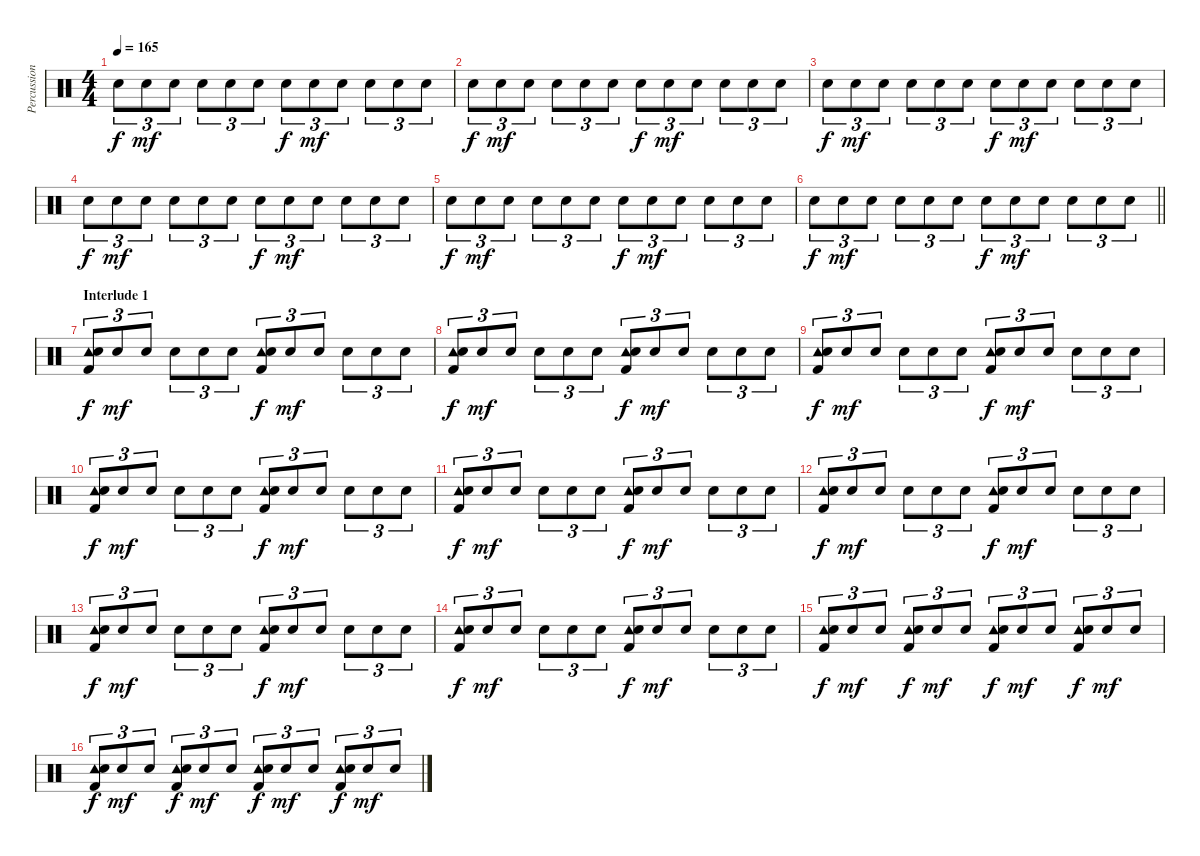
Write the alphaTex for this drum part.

\track ("Percussion" "Percussion") {instrument percussion}
\staff {score}
\articulation defaults
\ts (4 4)
\tempo 165
\clef neutral
\ks c "Electric Snare (hit)".8{tu (3 2) dy f} "Electric Snare (hit)".8{tu (3 2) dy mf} "Electric Snare (hit)".8{tu (3 2)} "Electric Snare (hit)".8{tu (3 2)} "Electric Snare (hit)".8{tu (3 2)} "Electric Snare (hit)".8{tu (3 2)} "Electric Snare (hit)".8{tu (3 2) dy f} "Electric Snare (hit)".8{tu (3 2) dy mf} "Electric Snare (hit)".8{tu (3 2)} "Electric Snare (hit)".8{tu (3 2)} "Electric Snare (hit)".8{tu (3 2)} "Electric Snare (hit)".8{tu (3 2)}
|
"Electric Snare (hit)".8{tu (3 2) dy f} "Electric Snare (hit)".8{tu (3 2) dy mf} "Electric Snare (hit)".8{tu (3 2)} "Electric Snare (hit)".8{tu (3 2)} "Electric Snare (hit)".8{tu (3 2)} "Electric Snare (hit)".8{tu (3 2)} "Electric Snare (hit)".8{tu (3 2) dy f} "Electric Snare (hit)".8{tu (3 2) dy mf} "Electric Snare (hit)".8{tu (3 2)} "Electric Snare (hit)".8{tu (3 2)} "Electric Snare (hit)".8{tu (3 2)} "Electric Snare (hit)".8{tu (3 2)} |
"Electric Snare (hit)".8{tu (3 2) dy f} "Electric Snare (hit)".8{tu (3 2) dy mf} "Electric Snare (hit)".8{tu (3 2)} "Electric Snare (hit)".8{tu (3 2)} "Electric Snare (hit)".8{tu (3 2)} "Electric Snare (hit)".8{tu (3 2)} "Electric Snare (hit)".8{tu (3 2) dy f} "Electric Snare (hit)".8{tu (3 2) dy mf} "Electric Snare (hit)".8{tu (3 2)} "Electric Snare (hit)".8{tu (3 2)} "Electric Snare (hit)".8{tu (3 2)} "Electric Snare (hit)".8{tu (3 2)} |
"Electric Snare (hit)".8{tu (3 2) dy f} "Electric Snare (hit)".8{tu (3 2) dy mf} "Electric Snare (hit)".8{tu (3 2)} "Electric Snare (hit)".8{tu (3 2)} "Electric Snare (hit)".8{tu (3 2)} "Electric Snare (hit)".8{tu (3 2)} "Electric Snare (hit)".8{tu (3 2) dy f} "Electric Snare (hit)".8{tu (3 2) dy mf} "Electric Snare (hit)".8{tu (3 2)} "Electric Snare (hit)".8{tu (3 2)} "Electric Snare (hit)".8{tu (3 2)} "Electric Snare (hit)".8{tu (3 2)} |
"Electric Snare (hit)".8{tu (3 2) dy f} "Electric Snare (hit)".8{tu (3 2) dy mf} "Electric Snare (hit)".8{tu (3 2)} "Electric Snare (hit)".8{tu (3 2)} "Electric Snare (hit)".8{tu (3 2)} "Electric Snare (hit)".8{tu (3 2)} "Electric Snare (hit)".8{tu (3 2) dy f} "Electric Snare (hit)".8{tu (3 2) dy mf} "Electric Snare (hit)".8{tu (3 2)} "Electric Snare (hit)".8{tu (3 2)} "Electric Snare (hit)".8{tu (3 2)} "Electric Snare (hit)".8{tu (3 2)} |
\barLineRight lightlight "Electric Snare (hit)".8{tu (3 2) dy f} "Electric Snare (hit)".8{tu (3 2) dy mf} "Electric Snare (hit)".8{tu (3 2)} "Electric Snare (hit)".8{tu (3 2)} "Electric Snare (hit)".8{tu (3 2)} "Electric Snare (hit)".8{tu (3 2)} "Electric Snare (hit)".8{tu (3 2) dy f} "Electric Snare (hit)".8{tu (3 2) dy mf} "Electric Snare (hit)".8{tu (3 2)} "Electric Snare (hit)".8{tu (3 2)} "Electric Snare (hit)".8{tu (3 2)} "Electric Snare (hit)".8{tu (3 2)}
|
\section ("" "Interlude 1")
("Tambourine (hit)" "Electric Snare (hit)" "Kick (hit) 2").8{tu (3 2) dy f} "Electric Snare (hit)".8{tu (3 2) dy mf} "Electric Snare (hit)".8{tu (3 2)} "Electric Snare (hit)".8{tu (3 2)} "Electric Snare (hit)".8{tu (3 2)} "Electric Snare (hit)".8{tu (3 2)} ("Tambourine (hit)" "Electric Snare (hit)" "Kick (hit) 2").8{tu (3 2) dy f} "Electric Snare (hit)".8{tu (3 2) dy mf} "Electric Snare (hit)".8{tu (3 2)} "Electric Snare (hit)".8{tu (3 2)} "Electric Snare (hit)".8{tu (3 2)} "Electric Snare (hit)".8{tu (3 2)} |
("Tambourine (hit)" "Electric Snare (hit)" "Kick (hit) 2").8{tu (3 2) dy f} "Electric Snare (hit)".8{tu (3 2) dy mf} "Electric Snare (hit)".8{tu (3 2)} "Electric Snare (hit)".8{tu (3 2)} "Electric Snare (hit)".8{tu (3 2)} "Electric Snare (hit)".8{tu (3 2)} ("Tambourine (hit)" "Electric Snare (hit)" "Kick (hit) 2").8{tu (3 2) dy f} "Electric Snare (hit)".8{tu (3 2) dy mf} "Electric Snare (hit)".8{tu (3 2)} "Electric Snare (hit)".8{tu (3 2)} "Electric Snare (hit)".8{tu (3 2)} "Electric Snare (hit)".8{tu (3 2)} |
("Tambourine (hit)" "Electric Snare (hit)" "Kick (hit) 2").8{tu (3 2) dy f} "Electric Snare (hit)".8{tu (3 2) dy mf} "Electric Snare (hit)".8{tu (3 2)} "Electric Snare (hit)".8{tu (3 2)} "Electric Snare (hit)".8{tu (3 2)} "Electric Snare (hit)".8{tu (3 2)} ("Tambourine (hit)" "Electric Snare (hit)" "Kick (hit) 2").8{tu (3 2) dy f} "Electric Snare (hit)".8{tu (3 2) dy mf} "Electric Snare (hit)".8{tu (3 2)} "Electric Snare (hit)".8{tu (3 2)} "Electric Snare (hit)".8{tu (3 2)} "Electric Snare (hit)".8{tu (3 2)} |
("Tambourine (hit)" "Electric Snare (hit)" "Kick (hit) 2").8{tu (3 2) dy f} "Electric Snare (hit)".8{tu (3 2) dy mf} "Electric Snare (hit)".8{tu (3 2)} "Electric Snare (hit)".8{tu (3 2)} "Electric Snare (hit)".8{tu (3 2)} "Electric Snare (hit)".8{tu (3 2)} ("Tambourine (hit)" "Electric Snare (hit)" "Kick (hit) 2").8{tu (3 2) dy f} "Electric Snare (hit)".8{tu (3 2) dy mf} "Electric Snare (hit)".8{tu (3 2)} "Electric Snare (hit)".8{tu (3 2)} "Electric Snare (hit)".8{tu (3 2)} "Electric Snare (hit)".8{tu (3 2)} |
("Tambourine (hit)" "Electric Snare (hit)" "Kick (hit) 2").8{tu (3 2) dy f} "Electric Snare (hit)".8{tu (3 2) dy mf} "Electric Snare (hit)".8{tu (3 2)} "Electric Snare (hit)".8{tu (3 2)} "Electric Snare (hit)".8{tu (3 2)} "Electric Snare (hit)".8{tu (3 2)} ("Tambourine (hit)" "Electric Snare (hit)" "Kick (hit) 2").8{tu (3 2) dy f} "Electric Snare (hit)".8{tu (3 2) dy mf} "Electric Snare (hit)".8{tu (3 2)} "Electric Snare (hit)".8{tu (3 2)} "Electric Snare (hit)".8{tu (3 2)} "Electric Snare (hit)".8{tu (3 2)} |
("Tambourine (hit)" "Electric Snare (hit)" "Kick (hit) 2").8{tu (3 2) dy f} "Electric Snare (hit)".8{tu (3 2) dy mf} "Electric Snare (hit)".8{tu (3 2)} "Electric Snare (hit)".8{tu (3 2)} "Electric Snare (hit)".8{tu (3 2)} "Electric Snare (hit)".8{tu (3 2)} ("Tambourine (hit)" "Electric Snare (hit)" "Kick (hit) 2").8{tu (3 2) dy f} "Electric Snare (hit)".8{tu (3 2) dy mf} "Electric Snare (hit)".8{tu (3 2)} "Electric Snare (hit)".8{tu (3 2)} "Electric Snare (hit)".8{tu (3 2)} "Electric Snare (hit)".8{tu (3 2)} |
("Tambourine (hit)" "Electric Snare (hit)" "Kick (hit) 2").8{tu (3 2) dy f} "Electric Snare (hit)".8{tu (3 2) dy mf} "Electric Snare (hit)".8{tu (3 2)} "Electric Snare (hit)".8{tu (3 2)} "Electric Snare (hit)".8{tu (3 2)} "Electric Snare (hit)".8{tu (3 2)} ("Tambourine (hit)" "Electric Snare (hit)" "Kick (hit) 2").8{tu (3 2) dy f} "Electric Snare (hit)".8{tu (3 2) dy mf} "Electric Snare (hit)".8{tu (3 2)} "Electric Snare (hit)".8{tu (3 2)} "Electric Snare (hit)".8{tu (3 2)} "Electric Snare (hit)".8{tu (3 2)} |
("Tambourine (hit)" "Electric Snare (hit)" "Kick (hit) 2").8{tu (3 2) dy f} "Electric Snare (hit)".8{tu (3 2) dy mf} "Electric Snare (hit)".8{tu (3 2)} "Electric Snare (hit)".8{tu (3 2)} "Electric Snare (hit)".8{tu (3 2)} "Electric Snare (hit)".8{tu (3 2)} ("Tambourine (hit)" "Electric Snare (hit)" "Kick (hit) 2").8{tu (3 2) dy f} "Electric Snare (hit)".8{tu (3 2) dy mf} "Electric Snare (hit)".8{tu (3 2)} "Electric Snare (hit)".8{tu (3 2)} "Electric Snare (hit)".8{tu (3 2)} "Electric Snare (hit)".8{tu (3 2)} |
("Tambourine (hit)" "Electric Snare (hit)" "Kick (hit) 2").8{tu (3 2) dy f} "Electric Snare (hit)".8{tu (3 2) dy mf} "Electric Snare (hit)".8{tu (3 2)} ("Tambourine (hit)" "Electric Snare (hit)" "Kick (hit) 2").8{tu (3 2) dy f} "Electric Snare (hit)".8{tu (3 2) dy mf} "Electric Snare (hit)".8{tu (3 2)} ("Tambourine (hit)" "Electric Snare (hit)" "Kick (hit) 2").8{tu (3 2) dy f} "Electric Snare (hit)".8{tu (3 2) dy mf} "Electric Snare (hit)".8{tu (3 2)} ("Tambourine (hit)" "Electric Snare (hit)" "Kick (hit) 2").8{tu (3 2) dy f} "Electric Snare (hit)".8{tu (3 2) dy mf} "Electric Snare (hit)".8{tu (3 2)} |
("Tambourine (hit)" "Electric Snare (hit)" "Kick (hit) 2").8{tu (3 2) dy f} "Electric Snare (hit)".8{tu (3 2) dy mf} "Electric Snare (hit)".8{tu (3 2)} ("Tambourine (hit)" "Electric Snare (hit)" "Kick (hit) 2").8{tu (3 2) dy f} "Electric Snare (hit)".8{tu (3 2) dy mf} "Electric Snare (hit)".8{tu (3 2)} ("Tambourine (hit)" "Electric Snare (hit)" "Kick (hit) 2").8{tu (3 2) dy f} "Electric Snare (hit)".8{tu (3 2) dy mf} "Electric Snare (hit)".8{tu (3 2)} ("Tambourine (hit)" "Electric Snare (hit)" "Kick (hit) 2").8{tu (3 2) dy f} "Electric Snare (hit)".8{tu (3 2) dy mf} "Electric Snare (hit)".8{tu (3 2)}
